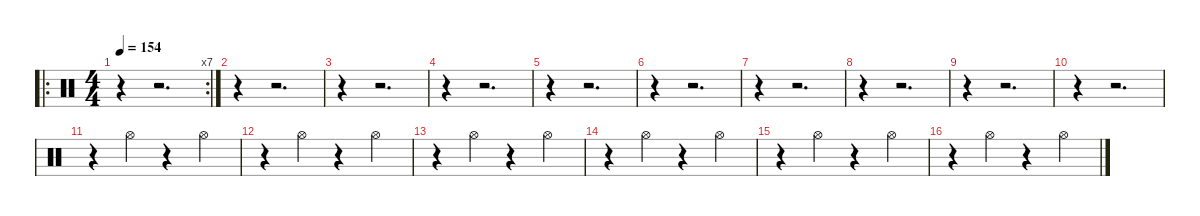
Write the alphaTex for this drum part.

\defaultSystemsLayout 4
\hideDynamics
\bracketExtendMode nobrackets
\singleTrackTrackNamePolicy hidden
\multiTrackTrackNamePolicy hidden
\firstSystemTrackNameMode fullname
\firstSystemTrackNameOrientation horizontal
\otherSystemsTrackNameOrientation horizontal
\track ("Percussie" "drm.") {instrument percussion}
\staff {score}
\articulation defaults
\ro
\rc 7
\ts (4 4)
\beaming (8 2 2 2 2)
\tempo 154
\clef neutral
\ks c
r.4{dy f beam Down} r.2{d beam Down} |
r.4{beam Down} r.2{d beam Down} |
r.4{beam Down} r.2{d beam Down} |
r.4{beam Down} r.2{d beam Down} |
r.4{beam Down} r.2{d beam Down} |
r.4{beam Down} r.2{d beam Down} |
r.4{beam Down} r.2{d beam Down} |
r.4{beam Down} r.2{d beam Down} |
r.4{beam Down} r.2{d beam Down} |
r.4{beam Down} r.2{d beam Down} |
r.4{beam Down} "Hi-Hat (open)".4{beam Down} r.4{beam Down} "Hi-Hat (open)".4{beam Down} |
r.4{beam Down} "Hi-Hat (open)".4{beam Down} r.4{beam Down} "Hi-Hat (open)".4{beam Down} |
r.4{beam Down} "Hi-Hat (open)".4{beam Down} r.4{beam Down} "Hi-Hat (open)".4{beam Down} |
r.4{beam Down} "Hi-Hat (open)".4{beam Down} r.4{beam Down} "Hi-Hat (open)".4{beam Down} |
r.4{beam Down} "Hi-Hat (open)".4{beam Down} r.4{beam Down} "Hi-Hat (open)".4{beam Down} |
r.4{beam Down} "Hi-Hat (open)".4{beam Down} r.4{beam Down} "Hi-Hat (open)".4{beam Down}
